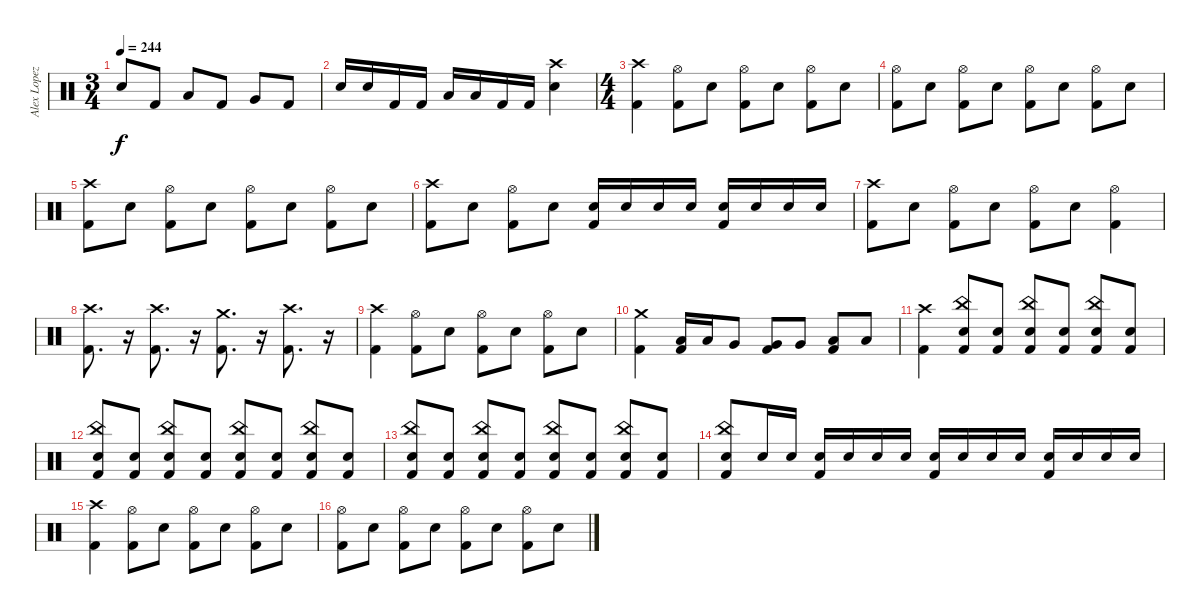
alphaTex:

\track ("Alex Lopez" "Alex Lopez") {instrument percussion}
\staff {score}
\articulation defaults
\ts (3 4)
\tempo 244
\clef neutral
\ks c "Snare (hit) 2".8{dy f volume 16} "Kick (hit) 2".8 "Low Tom (hit)".8 "Kick (hit) 2".8 "Very Low Tom (hit)".8 "Kick (hit) 2".8
|
"Snare (hit) 2".16 "Snare (hit) 2".16 "Kick (hit) 2".16 "Kick (hit) 2".16 "Low Tom (hit)".16 "Low Tom (hit)".16 "Kick (hit) 2".16 "Kick (hit) 2".16 ("Crash high (hit)" "Snare (hit) 2").4 |
\ts (4 4)
("Crash high (hit)" "Kick (hit) 2").4 ("Hi-Hat (open)" "Kick (hit) 2").8 "Snare (hit) 2".8 ("Hi-Hat (open)" "Kick (hit) 2").8 "Snare (hit) 2".8 ("Hi-Hat (open)" "Kick (hit) 2").8 "Snare (hit) 2".8 |
("Hi-Hat (open)" "Kick (hit) 2").8 "Snare (hit) 2".8 ("Hi-Hat (open)" "Kick (hit) 2").8 "Snare (hit) 2".8 ("Hi-Hat (open)" "Kick (hit) 2").8 "Snare (hit) 2".8 ("Hi-Hat (open)" "Kick (hit) 2").8 "Snare (hit) 2".8 |
("Crash high (hit)" "Kick (hit) 2").8 "Snare (hit) 2".8 ("Hi-Hat (open)" "Kick (hit) 2").8 "Snare (hit) 2".8 ("Hi-Hat (open)" "Kick (hit) 2").8 "Snare (hit) 2".8 ("Hi-Hat (open)" "Kick (hit) 2").8 "Snare (hit) 2".8 |
("Crash high (hit)" "Kick (hit) 2").8 "Snare (hit) 2".8 ("Hi-Hat (open)" "Kick (hit) 2").8 "Snare (hit) 2".8 ("Snare (hit) 2" "Kick (hit) 2").16 "Snare (hit) 2".16 "Snare (hit) 2".16 "Snare (hit) 2".16 ("Snare (hit) 2" "Kick (hit) 2").16 "Snare (hit) 2".16 "Snare (hit) 2".16 "Snare (hit) 2".16 |
("Crash high (hit)" "Kick (hit) 2").8 "Snare (hit) 2".8 ("Hi-Hat (open)" "Kick (hit) 2").8 "Snare (hit) 2".8 ("Hi-Hat (open)" "Kick (hit) 2").8 "Snare (hit) 2".8 ("Hi-Hat (open)" "Kick (hit) 2").4 |
("Crash high (hit)" "Kick (hit) 2").8{d} r.16{volume 0} ("Crash high (hit)" "Kick (hit) 2").8{d volume 16} r.16{volume 0} ("Crash medium (hit)" "Kick (hit) 2").8{d volume 16} r.16{volume 0} ("Crash high (hit)" "Kick (hit) 2").8{d volume 16} r.16{volume 16} |
("Crash high (hit)" "Kick (hit) 2").4{volume 16} ("Hi-Hat (open)" "Kick (hit) 2").8 "Snare (hit) 2".8 ("Hi-Hat (open)" "Kick (hit) 2").8 "Snare (hit) 2".8 ("Hi-Hat (open)" "Kick (hit) 2").8 "Snare (hit) 2".8 |
("Crash medium (hit)" "Kick (hit) 2").4 ("Low Tom (hit)" "Kick (hit) 2").16 "Low Tom (hit)".16 "Very Low Tom (hit)".8 ("Very Low Tom (hit)" "Kick (hit) 2").8 "Very Low Tom (hit)".8 ("Low Floor Tom (hit)" "Kick (hit) 2").8 "Low Floor Tom (hit)".8 |
("Crash high (hit)" "Kick (hit) 2").4 ("China (hit)" "Electric Snare (hit)" "Kick (hit) 2").8 ("Electric Snare (hit)" "Kick (hit) 2").8 ("China (hit)" "Electric Snare (hit)" "Kick (hit) 2").8 ("Electric Snare (hit)" "Kick (hit) 2").8 ("China (hit)" "Electric Snare (hit)" "Kick (hit) 2").8 ("Electric Snare (hit)" "Kick (hit) 2").8 |
("China (hit)" "Electric Snare (hit)" "Kick (hit) 2").8 ("Electric Snare (hit)" "Kick (hit) 2").8 ("China (hit)" "Electric Snare (hit)" "Kick (hit) 2").8 ("Electric Snare (hit)" "Kick (hit) 2").8 ("China (hit)" "Electric Snare (hit)" "Kick (hit) 2").8 ("Electric Snare (hit)" "Kick (hit) 2").8 ("China (hit)" "Electric Snare (hit)" "Kick (hit) 2").8 ("Electric Snare (hit)" "Kick (hit) 2").8 |
("China (hit)" "Electric Snare (hit)" "Kick (hit) 2").8 ("Electric Snare (hit)" "Kick (hit) 2").8 ("China (hit)" "Electric Snare (hit)" "Kick (hit) 2").8 ("Electric Snare (hit)" "Kick (hit) 2").8 ("China (hit)" "Electric Snare (hit)" "Kick (hit) 2").8 ("Electric Snare (hit)" "Kick (hit) 2").8 ("China (hit)" "Electric Snare (hit)" "Kick (hit) 2").8 ("Electric Snare (hit)" "Kick (hit) 2").8 |
("China (hit)" "Electric Snare (hit)" "Kick (hit) 2").8 "Electric Snare (hit)".16 "Electric Snare (hit)".16 ("Electric Snare (hit)" "Kick (hit) 2").16 "Electric Snare (hit)".16 "Electric Snare (hit)".16 "Electric Snare (hit)".16 ("Electric Snare (hit)" "Kick (hit) 2").16 "Electric Snare (hit)".16 "Electric Snare (hit)".16 "Electric Snare (hit)".16 ("Electric Snare (hit)" "Kick (hit) 2").16 "Electric Snare (hit)".16 "Electric Snare (hit)".16 "Electric Snare (hit)".16 |
("Crash high (hit)" "Kick (hit) 2").4 ("Hi-Hat (open)" "Kick (hit) 2").8 "Snare (hit) 2".8 ("Hi-Hat (open)" "Kick (hit) 2").8 "Snare (hit) 2".8 ("Hi-Hat (open)" "Kick (hit) 2").8 "Snare (hit) 2".8 |
("Hi-Hat (open)" "Kick (hit) 2").8 "Snare (hit) 2".8 ("Hi-Hat (open)" "Kick (hit) 2").8 "Snare (hit) 2".8 ("Hi-Hat (open)" "Kick (hit) 2").8 "Snare (hit) 2".8 ("Hi-Hat (open)" "Kick (hit) 2").8 "Snare (hit) 2".8
